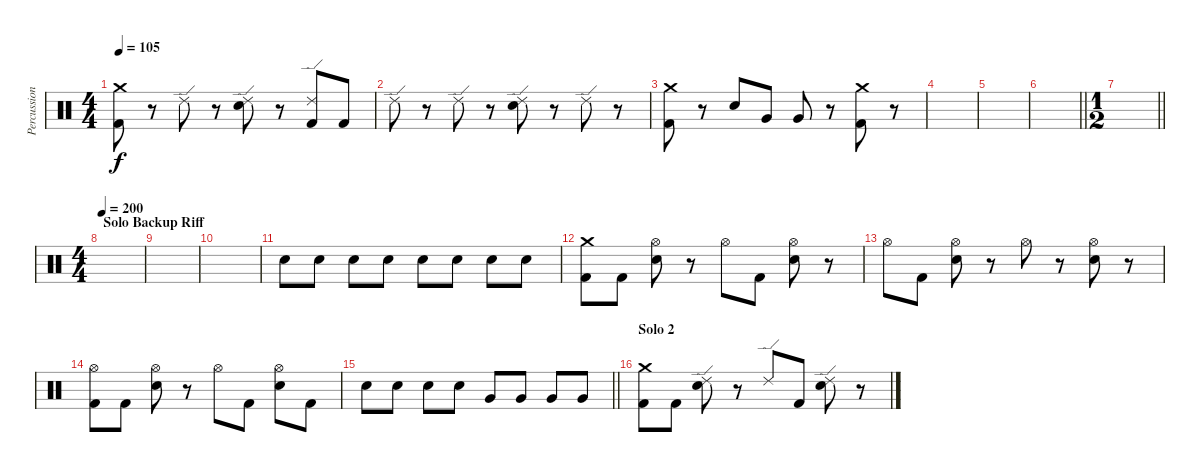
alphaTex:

\track ("Percussion" "Percussion") {instrument percussion}
\staff {score}
\articulation defaults
\ts (4 4)
\tempo 105
\clef neutral
\ks c
("Crash medium (hit)" "Kick (hit) 2").8{dy f} r.8 "Ride (edge) 2".8 r.8 ("Ride (edge) 2" "Electric Snare (hit)").8 r.8 ("Ride (edge) 2" "Kick (hit) 2").8 "Kick (hit) 2".8 |
"Ride (edge) 2".8 r.8 "Ride (edge) 2".8 r.8 ("Ride (edge) 2" "Electric Snare (hit)").8 r.8 "Ride (edge) 2".8 r.8 |
("Kick (hit) 2" "Crash medium (hit)").8 r.8 "Electric Snare (hit)".8 "Very Low Tom (hit)".8 "Very Low Tom (hit)".8 r.8 ("Crash medium (hit)" "Kick (hit) 2").8 r.8 |
|
|
\barLineRight lightlight
|
\ts (1 2)
\barLineRight lightlight
|
\ts (4 4)
\section ("" "Solo Backup Riff")
\tempo 200
|
|
|
"Electric Snare (hit)".8 "Electric Snare (hit)".8 "Electric Snare (hit)".8 "Electric Snare (hit)".8 "Electric Snare (hit)".8 "Electric Snare (hit)".8 "Electric Snare (hit)".8 "Electric Snare (hit)".8 |
("Crash medium (hit)" "Kick (hit) 2").8 "Kick (hit) 2".8 ("Hi-Hat (open)" "Electric Snare (hit)").8 r.8 "Hi-Hat (open)".8 "Kick (hit) 2".8 ("Hi-Hat (open)" "Electric Snare (hit)").8 r.8 |
"Hi-Hat (open)".8 "Kick (hit) 2".8 ("Hi-Hat (open)" "Electric Snare (hit)").8 r.8 "Hi-Hat (open)".8 r.8 ("Hi-Hat (open)" "Electric Snare (hit)").8 r.8 |
("Hi-Hat (open)" "Kick (hit) 2").8 "Kick (hit) 2".8 ("Hi-Hat (open)" "Electric Snare (hit)").8 r.8 "Hi-Hat (open)".8 "Kick (hit) 2".8 ("Hi-Hat (open)" "Electric Snare (hit)").8 "Kick (hit) 2".8 |
\barLineRight lightlight "Electric Snare (hit)".8 "Electric Snare (hit)".8 "Electric Snare (hit)".8 "Electric Snare (hit)".8 "Very Low Tom (hit)".8 "Very Low Tom (hit)".8 "Very Low Tom (hit)".8 "Very Low Tom (hit)".8
|
\section ("" "Solo 2")
("Crash medium (hit)" "Kick (hit) 2").8 "Kick (hit) 2".8 ("Ride (edge) 2" "Electric Snare (hit)").8 r.8 "Ride (edge) 2".8 "Kick (hit) 2".8 ("Ride (edge) 2" "Electric Snare (hit)").8 r.8
